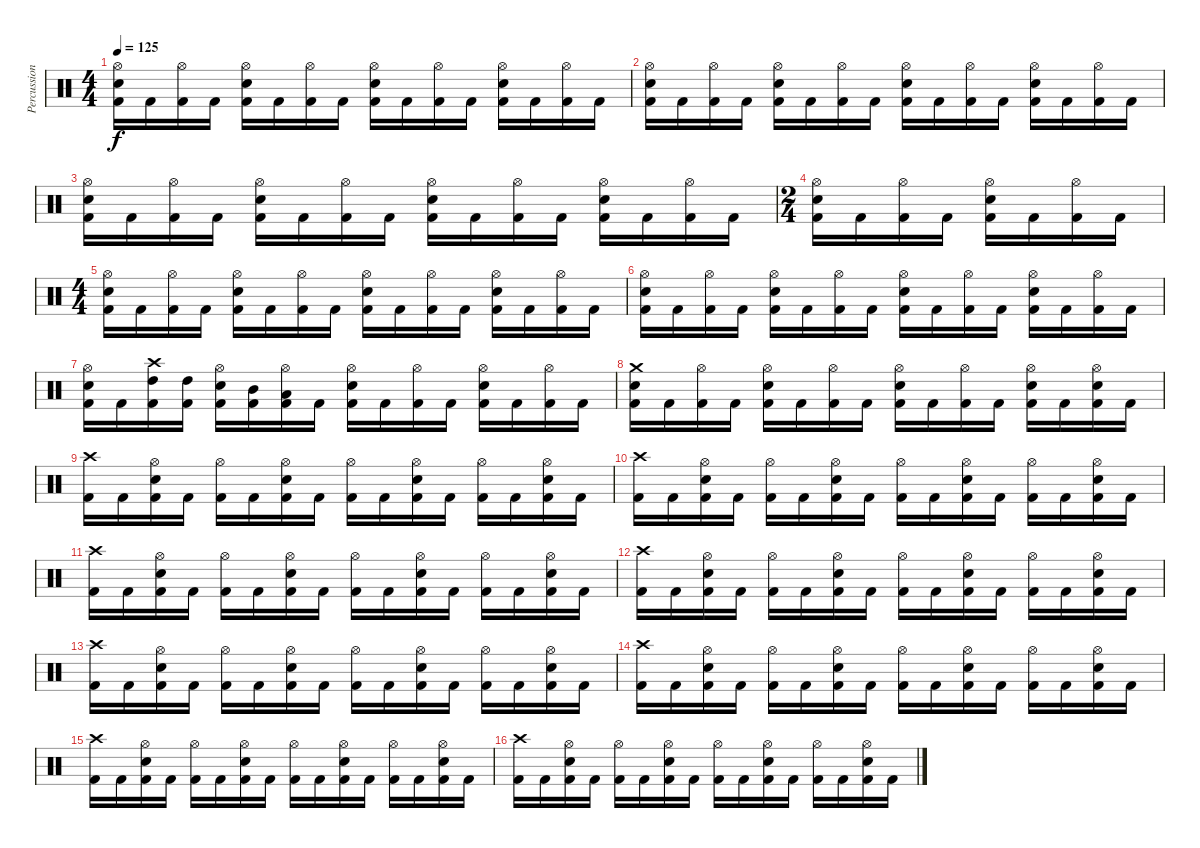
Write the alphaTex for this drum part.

\track ("Percussion" "Percussion") {instrument percussion}
\staff {score}
\articulation defaults
\ts (4 4)
\tempo 125
\clef neutral
\ks c
("Hi-Hat (open)" "Snare (hit) 2" "Kick (hit) 2").16{dy f} "Kick (hit) 2".16 ("Hi-Hat (open)" "Kick (hit) 2").16 "Kick (hit) 2".16 ("Hi-Hat (open)" "Snare (hit) 2" "Kick (hit) 2").16 "Kick (hit) 2".16 ("Hi-Hat (open)" "Kick (hit) 2").16 "Kick (hit) 2".16 ("Hi-Hat (open)" "Snare (hit) 2" "Kick (hit) 2").16 "Kick (hit) 2".16 ("Hi-Hat (open)" "Kick (hit) 2").16 "Kick (hit) 2".16 ("Hi-Hat (open)" "Snare (hit) 2" "Kick (hit) 2").16 "Kick (hit) 2".16 ("Hi-Hat (open)" "Kick (hit) 2").16 "Kick (hit) 2".16 |
("Hi-Hat (open)" "Snare (hit) 2" "Kick (hit) 2").16 "Kick (hit) 2".16 ("Hi-Hat (open)" "Kick (hit) 2").16 "Kick (hit) 2".16 ("Hi-Hat (open)" "Snare (hit) 2" "Kick (hit) 2").16 "Kick (hit) 2".16 ("Hi-Hat (open)" "Kick (hit) 2").16 "Kick (hit) 2".16 ("Hi-Hat (open)" "Snare (hit) 2" "Kick (hit) 2").16 "Kick (hit) 2".16 ("Hi-Hat (open)" "Kick (hit) 2").16 "Kick (hit) 2".16 ("Hi-Hat (open)" "Snare (hit) 2" "Kick (hit) 2").16 "Kick (hit) 2".16 ("Hi-Hat (open)" "Kick (hit) 2").16 "Kick (hit) 2".16 |
("Hi-Hat (open)" "Snare (hit) 2" "Kick (hit) 2").16 "Kick (hit) 2".16 ("Hi-Hat (open)" "Kick (hit) 2").16 "Kick (hit) 2".16 ("Hi-Hat (open)" "Snare (hit) 2" "Kick (hit) 2").16 "Kick (hit) 2".16 ("Hi-Hat (open)" "Kick (hit) 2").16 "Kick (hit) 2".16 ("Hi-Hat (open)" "Snare (hit) 2" "Kick (hit) 2").16 "Kick (hit) 2".16 ("Hi-Hat (open)" "Kick (hit) 2").16 "Kick (hit) 2".16 ("Hi-Hat (open)" "Snare (hit) 2" "Kick (hit) 2").16 "Kick (hit) 2".16 ("Hi-Hat (open)" "Kick (hit) 2").16 "Kick (hit) 2".16 |
\ts (2 4)
("Hi-Hat (open)" "Snare (hit) 2" "Kick (hit) 2").16 "Kick (hit) 2".16 ("Hi-Hat (open)" "Kick (hit) 2").16 "Kick (hit) 2".16 ("Hi-Hat (open)" "Snare (hit) 2" "Kick (hit) 2").16 "Kick (hit) 2".16 ("Hi-Hat (open)" "Kick (hit) 2").16 "Kick (hit) 2".16 |
\ts (4 4)
("Hi-Hat (open)" "Snare (hit) 2" "Kick (hit) 2").16 "Kick (hit) 2".16 ("Hi-Hat (open)" "Kick (hit) 2").16 "Kick (hit) 2".16 ("Hi-Hat (open)" "Snare (hit) 2" "Kick (hit) 2").16 "Kick (hit) 2".16 ("Hi-Hat (open)" "Kick (hit) 2").16 "Kick (hit) 2".16 ("Hi-Hat (open)" "Snare (hit) 2" "Kick (hit) 2").16 "Kick (hit) 2".16 ("Hi-Hat (open)" "Kick (hit) 2").16 "Kick (hit) 2".16 ("Hi-Hat (open)" "Snare (hit) 2" "Kick (hit) 2").16 "Kick (hit) 2".16 ("Hi-Hat (open)" "Kick (hit) 2").16 "Kick (hit) 2".16 |
("Hi-Hat (open)" "Snare (hit) 2" "Kick (hit) 2").16 "Kick (hit) 2".16 ("Hi-Hat (open)" "Kick (hit) 2").16 "Kick (hit) 2".16 ("Hi-Hat (open)" "Snare (hit) 2" "Kick (hit) 2").16 "Kick (hit) 2".16 ("Hi-Hat (open)" "Kick (hit) 2").16 "Kick (hit) 2".16 ("Hi-Hat (open)" "Snare (hit) 2" "Kick (hit) 2").16 "Kick (hit) 2".16 ("Hi-Hat (open)" "Kick (hit) 2").16 "Kick (hit) 2".16 ("Hi-Hat (open)" "Snare (hit) 2" "Kick (hit) 2").16 "Kick (hit) 2".16 ("Hi-Hat (open)" "Kick (hit) 2").16 "Kick (hit) 2".16 |
("Hi-Hat (open)" "Snare (hit) 2" "Kick (hit) 2").16 "Kick (hit) 2".16 ("Crash high (hit)" "High Tom (hit)" "Kick (hit) 2").16 ("High Tom (hit)" "Kick (hit) 2").16 ("Hi-Hat (open)" "Snare (hit) 2" "Kick (hit) 2").16 ("Mid Tom (hit)" "Kick (hit) 2").16 ("Hi-Hat (open)" "Low Tom (hit)" "Kick (hit) 2").16 "Kick (hit) 2".16 ("Hi-Hat (open)" "Snare (hit) 2" "Kick (hit) 2").16 "Kick (hit) 2".16 ("Hi-Hat (open)" "Kick (hit) 2").16 "Kick (hit) 2".16 ("Hi-Hat (open)" "Snare (hit) 2" "Kick (hit) 2").16 "Kick (hit) 2".16 ("Hi-Hat (open)" "Kick (hit) 2").16 "Kick (hit) 2".16 |
("Crash medium (hit)" "Snare (hit) 2" "Kick (hit) 2").16 "Kick (hit) 2".16 ("Hi-Hat (open)" "Kick (hit) 2").16 "Kick (hit) 2".16 ("Hi-Hat (open)" "Snare (hit) 2" "Kick (hit) 2").16 "Kick (hit) 2".16 ("Hi-Hat (open)" "Kick (hit) 2").16 "Kick (hit) 2".16 ("Hi-Hat (open)" "Snare (hit) 2" "Kick (hit) 2").16 "Kick (hit) 2".16 ("Hi-Hat (open)" "Kick (hit) 2").16 "Kick (hit) 2".16 ("Hi-Hat (open)" "Snare (hit) 2" "Kick (hit) 2").16 "Kick (hit) 2".16 ("Hi-Hat (open)" "Snare (hit) 2" "Kick (hit) 2").16 "Kick (hit) 2".16 |
("Crash high (hit)" "Kick (hit) 2").16 "Kick (hit) 2".16 ("Hi-Hat (open)" "Snare (hit) 2" "Kick (hit) 2").16 "Kick (hit) 2".16 ("Hi-Hat (open)" "Kick (hit) 2").16 "Kick (hit) 2".16 ("Hi-Hat (open)" "Snare (hit) 2" "Kick (hit) 2").16 "Kick (hit) 2".16 ("Hi-Hat (open)" "Kick (hit) 2").16 "Kick (hit) 2".16 ("Hi-Hat (open)" "Snare (hit) 2" "Kick (hit) 2").16 "Kick (hit) 2".16 ("Hi-Hat (open)" "Kick (hit) 2").16 "Kick (hit) 2".16 ("Hi-Hat (open)" "Snare (hit) 2" "Kick (hit) 2").16 "Kick (hit) 2".16 |
("Crash high (hit)" "Kick (hit) 2").16 "Kick (hit) 2".16 ("Hi-Hat (open)" "Snare (hit) 2" "Kick (hit) 2").16 "Kick (hit) 2".16 ("Hi-Hat (open)" "Kick (hit) 2").16 "Kick (hit) 2".16 ("Hi-Hat (open)" "Snare (hit) 2" "Kick (hit) 2").16 "Kick (hit) 2".16 ("Hi-Hat (open)" "Kick (hit) 2").16 "Kick (hit) 2".16 ("Hi-Hat (open)" "Snare (hit) 2" "Kick (hit) 2").16 "Kick (hit) 2".16 ("Hi-Hat (open)" "Kick (hit) 2").16 "Kick (hit) 2".16 ("Hi-Hat (open)" "Snare (hit) 2" "Kick (hit) 2").16 "Kick (hit) 2".16 |
("Crash high (hit)" "Kick (hit) 2").16 "Kick (hit) 2".16 ("Hi-Hat (open)" "Snare (hit) 2" "Kick (hit) 2").16 "Kick (hit) 2".16 ("Hi-Hat (open)" "Kick (hit) 2").16 "Kick (hit) 2".16 ("Hi-Hat (open)" "Snare (hit) 2" "Kick (hit) 2").16 "Kick (hit) 2".16 ("Hi-Hat (open)" "Kick (hit) 2").16 "Kick (hit) 2".16 ("Hi-Hat (open)" "Snare (hit) 2" "Kick (hit) 2").16 "Kick (hit) 2".16 ("Hi-Hat (open)" "Kick (hit) 2").16 "Kick (hit) 2".16 ("Hi-Hat (open)" "Snare (hit) 2" "Kick (hit) 2").16 "Kick (hit) 2".16 |
("Crash high (hit)" "Kick (hit) 2").16 "Kick (hit) 2".16 ("Hi-Hat (open)" "Snare (hit) 2" "Kick (hit) 2").16 "Kick (hit) 2".16 ("Hi-Hat (open)" "Kick (hit) 2").16 "Kick (hit) 2".16 ("Hi-Hat (open)" "Snare (hit) 2" "Kick (hit) 2").16 "Kick (hit) 2".16 ("Hi-Hat (open)" "Kick (hit) 2").16 "Kick (hit) 2".16 ("Hi-Hat (open)" "Snare (hit) 2" "Kick (hit) 2").16 "Kick (hit) 2".16 ("Hi-Hat (open)" "Kick (hit) 2").16 "Kick (hit) 2".16 ("Hi-Hat (open)" "Snare (hit) 2" "Kick (hit) 2").16 "Kick (hit) 2".16 |
("Crash high (hit)" "Kick (hit) 2").16 "Kick (hit) 2".16 ("Hi-Hat (open)" "Snare (hit) 2" "Kick (hit) 2").16 "Kick (hit) 2".16 ("Hi-Hat (open)" "Kick (hit) 2").16 "Kick (hit) 2".16 ("Hi-Hat (open)" "Snare (hit) 2" "Kick (hit) 2").16 "Kick (hit) 2".16 ("Hi-Hat (open)" "Kick (hit) 2").16 "Kick (hit) 2".16 ("Hi-Hat (open)" "Snare (hit) 2" "Kick (hit) 2").16 "Kick (hit) 2".16 ("Hi-Hat (open)" "Kick (hit) 2").16 "Kick (hit) 2".16 ("Hi-Hat (open)" "Snare (hit) 2" "Kick (hit) 2").16 "Kick (hit) 2".16 |
("Crash high (hit)" "Kick (hit) 2").16 "Kick (hit) 2".16 ("Hi-Hat (open)" "Snare (hit) 2" "Kick (hit) 2").16 "Kick (hit) 2".16 ("Hi-Hat (open)" "Kick (hit) 2").16 "Kick (hit) 2".16 ("Hi-Hat (open)" "Snare (hit) 2" "Kick (hit) 2").16 "Kick (hit) 2".16 ("Hi-Hat (open)" "Kick (hit) 2").16 "Kick (hit) 2".16 ("Hi-Hat (open)" "Snare (hit) 2" "Kick (hit) 2").16 "Kick (hit) 2".16 ("Hi-Hat (open)" "Kick (hit) 2").16 "Kick (hit) 2".16 ("Hi-Hat (open)" "Snare (hit) 2" "Kick (hit) 2").16 "Kick (hit) 2".16 |
("Crash high (hit)" "Kick (hit) 2").16 "Kick (hit) 2".16 ("Hi-Hat (open)" "Snare (hit) 2" "Kick (hit) 2").16 "Kick (hit) 2".16 ("Hi-Hat (open)" "Kick (hit) 2").16 "Kick (hit) 2".16 ("Hi-Hat (open)" "Snare (hit) 2" "Kick (hit) 2").16 "Kick (hit) 2".16 ("Hi-Hat (open)" "Kick (hit) 2").16 "Kick (hit) 2".16 ("Hi-Hat (open)" "Snare (hit) 2" "Kick (hit) 2").16 "Kick (hit) 2".16 ("Hi-Hat (open)" "Kick (hit) 2").16 "Kick (hit) 2".16 ("Hi-Hat (open)" "Snare (hit) 2" "Kick (hit) 2").16 "Kick (hit) 2".16 |
("Crash high (hit)" "Kick (hit) 2").16 "Kick (hit) 2".16 ("Hi-Hat (open)" "Snare (hit) 2" "Kick (hit) 2").16 "Kick (hit) 2".16 ("Hi-Hat (open)" "Kick (hit) 2").16 "Kick (hit) 2".16 ("Hi-Hat (open)" "Snare (hit) 2" "Kick (hit) 2").16 "Kick (hit) 2".16 ("Hi-Hat (open)" "Kick (hit) 2").16 "Kick (hit) 2".16 ("Hi-Hat (open)" "Snare (hit) 2" "Kick (hit) 2").16 "Kick (hit) 2".16 ("Hi-Hat (open)" "Kick (hit) 2").16 "Kick (hit) 2".16 ("Hi-Hat (open)" "Snare (hit) 2" "Kick (hit) 2").16 "Kick (hit) 2".16
